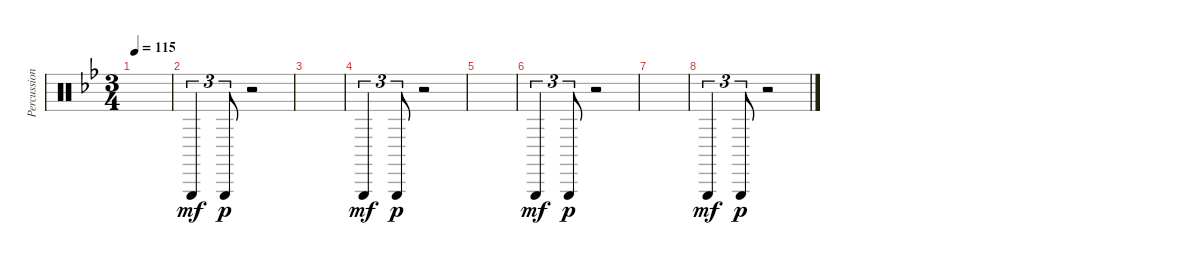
\track ("Percussion" "Percussion") {instrument percussion}
\staff {score}
\articulation defaults
\ts (3 4)
\tempo 115
\clef neutral
\ks gminor
|
"Triangle (hit)".4{tu (3 2) dy mf} "Triangle (hit)".8{tu (3 2) dy p} r.2 |
|
"Triangle (hit)".4{tu (3 2) dy mf} "Triangle (hit)".8{tu (3 2) dy p} r.2 |
|
"Triangle (hit)".4{tu (3 2) dy mf} "Triangle (hit)".8{tu (3 2) dy p} r.2 |
|
"Triangle (hit)".4{tu (3 2) dy mf} "Triangle (hit)".8{tu (3 2) dy p} r.2
